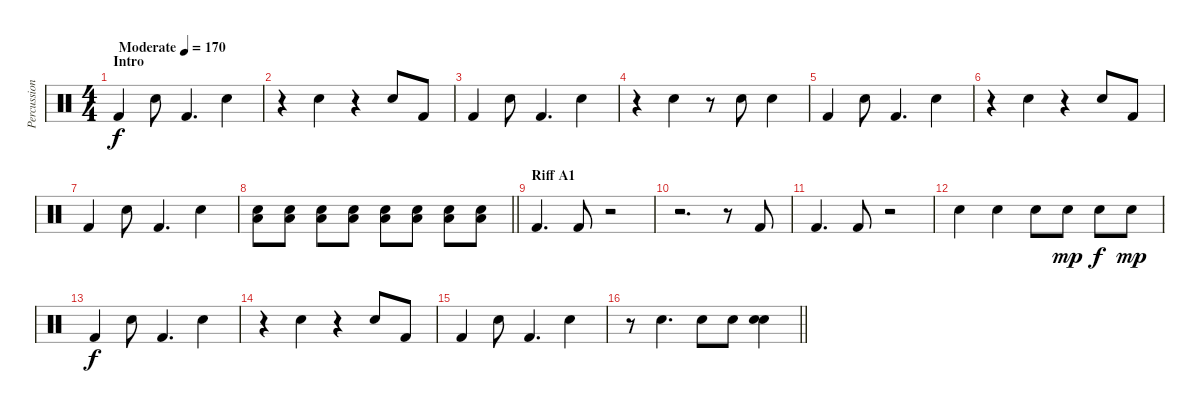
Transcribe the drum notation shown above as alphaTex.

\track ("Percussion" "Percussion") {instrument percussion}
\staff {score}
\articulation defaults
\ts (4 4)
\section ("" "Intro ")
\tempo (170 "Moderate")
\clef neutral
\ks c "Kick (hit) 2".4{dy f} "Hand Clap (hit)".8 "Kick (hit) 2".4{d} "Hand Clap (hit)".4
|
r.4 "Hand Clap (hit)".4 r.4 "Hand Clap (hit)".8 "Kick (hit) 2".8 |
"Kick (hit) 2".4 "Hand Clap (hit)".8 "Kick (hit) 2".4{d} "Hand Clap (hit)".4 |
r.4 "Hand Clap (hit)".4 r.8 "Hand Clap (hit)".8 "Hand Clap (hit)".4 |
"Kick (hit) 2".4 "Hand Clap (hit)".8 "Kick (hit) 2".4{d} "Hand Clap (hit)".4 |
r.4 "Hand Clap (hit)".4 r.4 "Hand Clap (hit)".8 "Kick (hit) 2".8 |
"Kick (hit) 2".4 "Hand Clap (hit)".8 "Kick (hit) 2".4{d} "Hand Clap (hit)".4 |
\barLineRight lightlight
("Electric Snare (hit)" "Low Tom (hit)").8 ("Electric Snare (hit)" "Low Tom (hit)").8 ("Electric Snare (hit)" "Low Tom (hit)").8 ("Electric Snare (hit)" "Low Tom (hit)").8 ("Electric Snare (hit)" "Low Tom (hit)").8 ("Electric Snare (hit)" "Low Tom (hit)").8 ("Electric Snare (hit)" "Low Tom (hit)").8 ("Electric Snare (hit)" "Low Tom (hit)").8 |
\section ("" "Riff A1")
"Kick (hit) 2".4{d} "Kick (hit) 2".8 r.2 |
r.2{d} r.8 "Kick (hit) 2".8 |
"Kick (hit) 2".4{d} "Kick (hit) 2".8 r.2 |
"Electric Snare (hit)".4 "Electric Snare (hit)".4 "Electric Snare (hit)".8 "Electric Snare (hit)".8{dy mp} "Electric Snare (hit)".8{dy f} "Electric Snare (hit)".8{dy mp} |
"Kick (hit) 2".4{dy f} "Hand Clap (hit)".8 "Kick (hit) 2".4{d} "Hand Clap (hit)".4 |
r.4 "Hand Clap (hit)".4 r.4 "Hand Clap (hit)".8 "Kick (hit) 2".8 |
"Kick (hit) 2".4 "Hand Clap (hit)".8 "Kick (hit) 2".4{d} "Hand Clap (hit)".4 |
\barLineRight lightlight
r.8 "Electric Snare (hit)".4{d} "Electric Snare (hit)".8 "Hand Clap (hit)".8 ("Electric Snare (hit)" "Hand Clap (hit)").4
